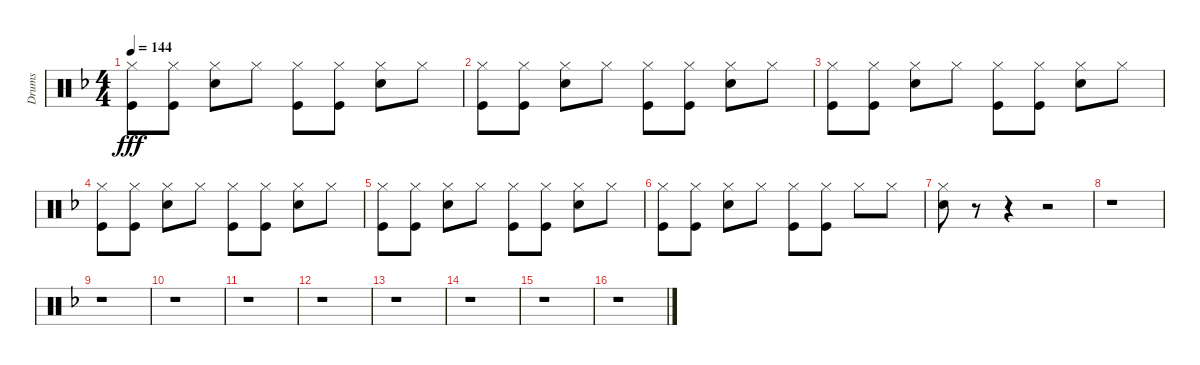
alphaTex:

\track ("Drums" "Drums") {instrument percussion}
\staff {score}
\articulation defaults
\ts (4 4)
\tempo 144
\clef neutral
\ks f
("Hi-Hat (closed)" "Kick (hit)").8{dy fff} ("Hi-Hat (closed)" "Kick (hit)").8 ("Hi-Hat (closed)" "Snare (hit) 2").8 "Hi-Hat (closed)".8 ("Hi-Hat (closed)" "Kick (hit)").8 ("Hi-Hat (closed)" "Kick (hit)").8 ("Hi-Hat (closed)" "Snare (hit) 2").8 "Hi-Hat (closed)".8 |
("Hi-Hat (closed)" "Kick (hit)").8 ("Hi-Hat (closed)" "Kick (hit)").8 ("Hi-Hat (closed)" "Snare (hit) 2").8 "Hi-Hat (closed)".8 ("Hi-Hat (closed)" "Kick (hit)").8 ("Hi-Hat (closed)" "Kick (hit)").8 ("Hi-Hat (closed)" "Snare (hit) 2").8 "Hi-Hat (closed)".8 |
("Hi-Hat (closed)" "Kick (hit)").8 ("Hi-Hat (closed)" "Kick (hit)").8 ("Hi-Hat (closed)" "Snare (hit) 2").8 "Hi-Hat (closed)".8 ("Hi-Hat (closed)" "Kick (hit)").8 ("Hi-Hat (closed)" "Kick (hit)").8 ("Hi-Hat (closed)" "Snare (hit) 2").8 "Hi-Hat (closed)".8 |
("Hi-Hat (closed)" "Kick (hit)").8 ("Hi-Hat (closed)" "Kick (hit)").8 ("Hi-Hat (closed)" "Snare (hit) 2").8 "Hi-Hat (closed)".8 ("Hi-Hat (closed)" "Kick (hit)").8 ("Hi-Hat (closed)" "Kick (hit)").8 ("Hi-Hat (closed)" "Snare (hit) 2").8 "Hi-Hat (closed)".8 |
("Hi-Hat (closed)" "Kick (hit)").8 ("Hi-Hat (closed)" "Kick (hit)").8 ("Hi-Hat (closed)" "Snare (hit) 2").8 "Hi-Hat (closed)".8 ("Hi-Hat (closed)" "Kick (hit)").8 ("Hi-Hat (closed)" "Kick (hit)").8 ("Hi-Hat (closed)" "Snare (hit) 2").8 "Hi-Hat (closed)".8 |
("Hi-Hat (closed)" "Kick (hit)").8 ("Hi-Hat (closed)" "Kick (hit)").8 ("Hi-Hat (closed)" "Snare (hit) 2").8 "Hi-Hat (closed)".8 ("Hi-Hat (closed)" "Kick (hit)").8 ("Hi-Hat (closed)" "Kick (hit)").8 "Hi-Hat (closed)".8 "Hi-Hat (closed)".8 |
("Hi-Hat (closed)" "Snare (hit) 2").8 r.8 r.4 r.2 |
r.1 |
r.1 |
r.1 |
r.1 |
r.1 |
r.1 |
r.1 |
r.1 |
r.1
